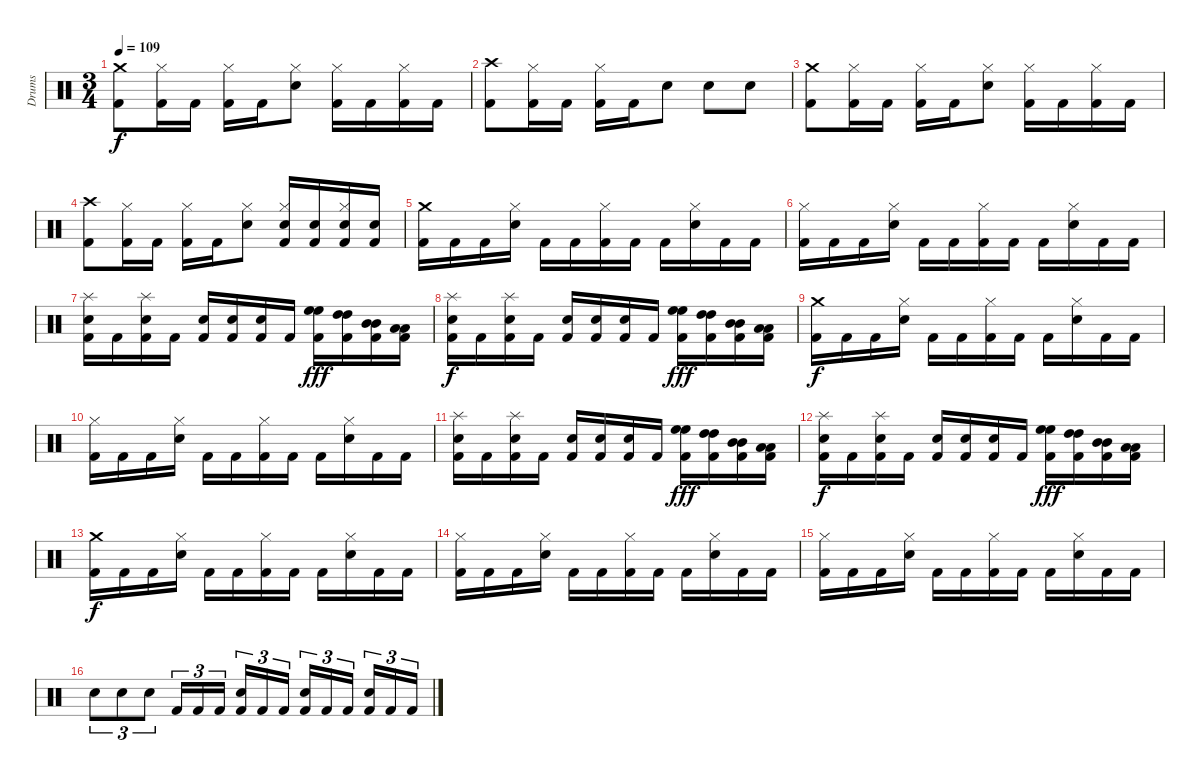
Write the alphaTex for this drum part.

\track ("Drums" "Drums") {instrument percussion}
\staff {score}
\articulation defaults
\ts (3 4)
\tempo 109
\clef neutral
\ks c
("Crash medium (hit)" "Kick (hit) 2").8{dy f} ("Hi-Hat (closed)" "Kick (hit) 2").16 "Kick (hit) 2".16 ("Hi-Hat (closed)" "Kick (hit) 2").16 "Kick (hit) 2".16 ("Hi-Hat (closed)" "Snare (hit) 2").8 ("Hi-Hat (closed)" "Kick (hit) 2").16 "Kick (hit) 2".16 ("Hi-Hat (closed)" "Kick (hit) 2").16 "Kick (hit) 2".16 |
("Crash high (hit)" "Kick (hit) 2").8 ("Hi-Hat (closed)" "Kick (hit) 2").16 "Kick (hit) 2".16 ("Hi-Hat (closed)" "Kick (hit) 2").16 "Kick (hit) 2".16 "Snare (hit) 2".8 "Snare (hit) 2".8 "Snare (hit) 2".8 |
("Crash medium (hit)" "Kick (hit) 2").8 ("Hi-Hat (closed)" "Kick (hit) 2").16 "Kick (hit) 2".16 ("Hi-Hat (closed)" "Kick (hit) 2").16 "Kick (hit) 2".16 ("Hi-Hat (closed)" "Snare (hit) 2").8 ("Hi-Hat (closed)" "Kick (hit) 2").16 "Kick (hit) 2".16 ("Hi-Hat (closed)" "Kick (hit) 2").16 "Kick (hit) 2".16 |
("Crash high (hit)" "Kick (hit) 2").8 ("Hi-Hat (closed)" "Kick (hit) 2").16 "Kick (hit) 2".16 ("Hi-Hat (closed)" "Kick (hit) 2").16 "Kick (hit) 2".16 ("Hi-Hat (closed)" "Snare (hit) 2").8 ("Hi-Hat (closed)" "Snare (hit) 2" "Kick (hit) 2").16 ("Snare (hit) 2" "Kick (hit) 2").16 ("Hi-Hat (closed)" "Snare (hit) 2" "Kick (hit) 2").16 ("Snare (hit) 2" "Kick (hit) 2").16 |
("Crash medium (hit)" "Kick (hit) 2").16 "Kick (hit) 2".16 "Kick (hit) 2".16 ("Hi-Hat (closed)" "Snare (hit) 2").16 "Kick (hit) 2".16 "Kick (hit) 2".16 ("Hi-Hat (closed)" "Kick (hit) 2").16 "Kick (hit) 2".16 "Kick (hit) 2".16 ("Hi-Hat (closed)" "Snare (hit) 2").16 "Kick (hit) 2".16 "Kick (hit) 2".16 |
("Hi-Hat (closed)" "Kick (hit) 2").16 "Kick (hit) 2".16 "Kick (hit) 2".16 ("Hi-Hat (closed)" "Snare (hit) 2").16 "Kick (hit) 2".16 "Kick (hit) 2".16 ("Hi-Hat (closed)" "Kick (hit) 2").16 "Kick (hit) 2".16 "Kick (hit) 2".16 ("Hi-Hat (closed)" "Snare (hit) 2").16 "Kick (hit) 2".16 "Kick (hit) 2".16 |
("Splash (hit)" "Snare (hit) 2" "Kick (hit) 2").16 "Kick (hit) 2".16 ("Splash (hit)" "Snare (hit) 2" "Kick (hit) 2").16 "Kick (hit) 2".16 ("Snare (hit) 2" "Kick (hit) 2").16 ("Snare (hit) 2" "Kick (hit) 2").16 ("Snare (hit) 2" "Kick (hit) 2").16 "Kick (hit) 2".16 ("High Floor Tom (hit)" "High Floor Tom (hit)" "Kick (hit) 2").16{dy fff} ("High Tom (hit)" "High Tom (hit)" "Kick (hit) 2").16 ("Mid Tom (hit)" "Mid Tom (hit)" "Kick (hit) 2").16 ("Low Tom (hit)" "Low Tom (hit)" "Kick (hit) 2").16 |
("Splash (hit)" "Snare (hit) 2" "Kick (hit) 2").16{dy f} "Kick (hit) 2".16 ("Splash (hit)" "Snare (hit) 2" "Kick (hit) 2").16 "Kick (hit) 2".16 ("Snare (hit) 2" "Kick (hit) 2").16 ("Snare (hit) 2" "Kick (hit) 2").16 ("Snare (hit) 2" "Kick (hit) 2").16 "Kick (hit) 2".16 ("High Floor Tom (hit)" "High Floor Tom (hit)" "Kick (hit) 2").16{dy fff} ("High Tom (hit)" "High Tom (hit)" "Kick (hit) 2").16 ("Mid Tom (hit)" "Mid Tom (hit)" "Kick (hit) 2").16 ("Low Tom (hit)" "Low Tom (hit)" "Kick (hit) 2").16 |
("Crash medium (hit)" "Kick (hit) 2").16{dy f} "Kick (hit) 2".16 "Kick (hit) 2".16 ("Hi-Hat (closed)" "Snare (hit) 2").16 "Kick (hit) 2".16 "Kick (hit) 2".16 ("Hi-Hat (closed)" "Kick (hit) 2").16 "Kick (hit) 2".16 "Kick (hit) 2".16 ("Hi-Hat (closed)" "Snare (hit) 2").16 "Kick (hit) 2".16 "Kick (hit) 2".16 |
("Hi-Hat (closed)" "Kick (hit) 2").16 "Kick (hit) 2".16 "Kick (hit) 2".16 ("Hi-Hat (closed)" "Snare (hit) 2").16 "Kick (hit) 2".16 "Kick (hit) 2".16 ("Hi-Hat (closed)" "Kick (hit) 2").16 "Kick (hit) 2".16 "Kick (hit) 2".16 ("Hi-Hat (closed)" "Snare (hit) 2").16 "Kick (hit) 2".16 "Kick (hit) 2".16 |
("Splash (hit)" "Snare (hit) 2" "Kick (hit) 2").16 "Kick (hit) 2".16 ("Splash (hit)" "Snare (hit) 2" "Kick (hit) 2").16 "Kick (hit) 2".16 ("Snare (hit) 2" "Kick (hit) 2").16 ("Snare (hit) 2" "Kick (hit) 2").16 ("Snare (hit) 2" "Kick (hit) 2").16 "Kick (hit) 2".16 ("High Floor Tom (hit)" "High Floor Tom (hit)" "Kick (hit) 2").16{dy fff} ("High Tom (hit)" "High Tom (hit)" "Kick (hit) 2").16 ("Mid Tom (hit)" "Mid Tom (hit)" "Kick (hit) 2").16 ("Low Tom (hit)" "Low Tom (hit)" "Kick (hit) 2").16 |
("Splash (hit)" "Snare (hit) 2" "Kick (hit) 2").16{dy f} "Kick (hit) 2".16 ("Splash (hit)" "Snare (hit) 2" "Kick (hit) 2").16 "Kick (hit) 2".16 ("Snare (hit) 2" "Kick (hit) 2").16 ("Snare (hit) 2" "Kick (hit) 2").16 ("Snare (hit) 2" "Kick (hit) 2").16 "Kick (hit) 2".16 ("High Floor Tom (hit)" "High Floor Tom (hit)" "Kick (hit) 2").16{dy fff} ("High Tom (hit)" "High Tom (hit)" "Kick (hit) 2").16 ("Mid Tom (hit)" "Mid Tom (hit)" "Kick (hit) 2").16 ("Low Tom (hit)" "Low Tom (hit)" "Kick (hit) 2").16 |
("Crash medium (hit)" "Kick (hit) 2").16{dy f} "Kick (hit) 2".16 "Kick (hit) 2".16 ("Hi-Hat (closed)" "Snare (hit) 2").16 "Kick (hit) 2".16 "Kick (hit) 2".16 ("Hi-Hat (closed)" "Kick (hit) 2").16 "Kick (hit) 2".16 "Kick (hit) 2".16 ("Hi-Hat (closed)" "Snare (hit) 2").16 "Kick (hit) 2".16 "Kick (hit) 2".16 |
("Hi-Hat (closed)" "Kick (hit) 2").16 "Kick (hit) 2".16 "Kick (hit) 2".16 ("Hi-Hat (closed)" "Snare (hit) 2").16 "Kick (hit) 2".16 "Kick (hit) 2".16 ("Hi-Hat (closed)" "Kick (hit) 2").16 "Kick (hit) 2".16 "Kick (hit) 2".16 ("Hi-Hat (closed)" "Snare (hit) 2").16 "Kick (hit) 2".16 "Kick (hit) 2".16 |
("Hi-Hat (closed)" "Kick (hit) 2").16 "Kick (hit) 2".16 "Kick (hit) 2".16 ("Hi-Hat (closed)" "Snare (hit) 2").16 "Kick (hit) 2".16 "Kick (hit) 2".16 ("Hi-Hat (closed)" "Kick (hit) 2").16 "Kick (hit) 2".16 "Kick (hit) 2".16 ("Hi-Hat (closed)" "Snare (hit) 2").16 "Kick (hit) 2".16 "Kick (hit) 2".16 |
"Snare (hit) 2".8{tu (3 2)} "Snare (hit) 2".8{tu (3 2)} "Snare (hit) 2".8{tu (3 2)} "Kick (hit) 2".16{tu (3 2)} "Kick (hit) 2".16{tu (3 2)} "Kick (hit) 2".16{tu (3 2)} ("Snare (hit) 2" "Kick (hit) 2").16{tu (3 2)} "Kick (hit) 2".16{tu (3 2)} "Kick (hit) 2".16{tu (3 2)} ("Snare (hit) 2" "Kick (hit) 2").16{tu (3 2)} "Kick (hit) 2".16{tu (3 2)} "Kick (hit) 2".16{tu (3 2)} ("Snare (hit) 2" "Kick (hit) 2").16{tu (3 2)} "Kick (hit) 2".16{tu (3 2)} "Kick (hit) 2".16{tu (3 2)}
